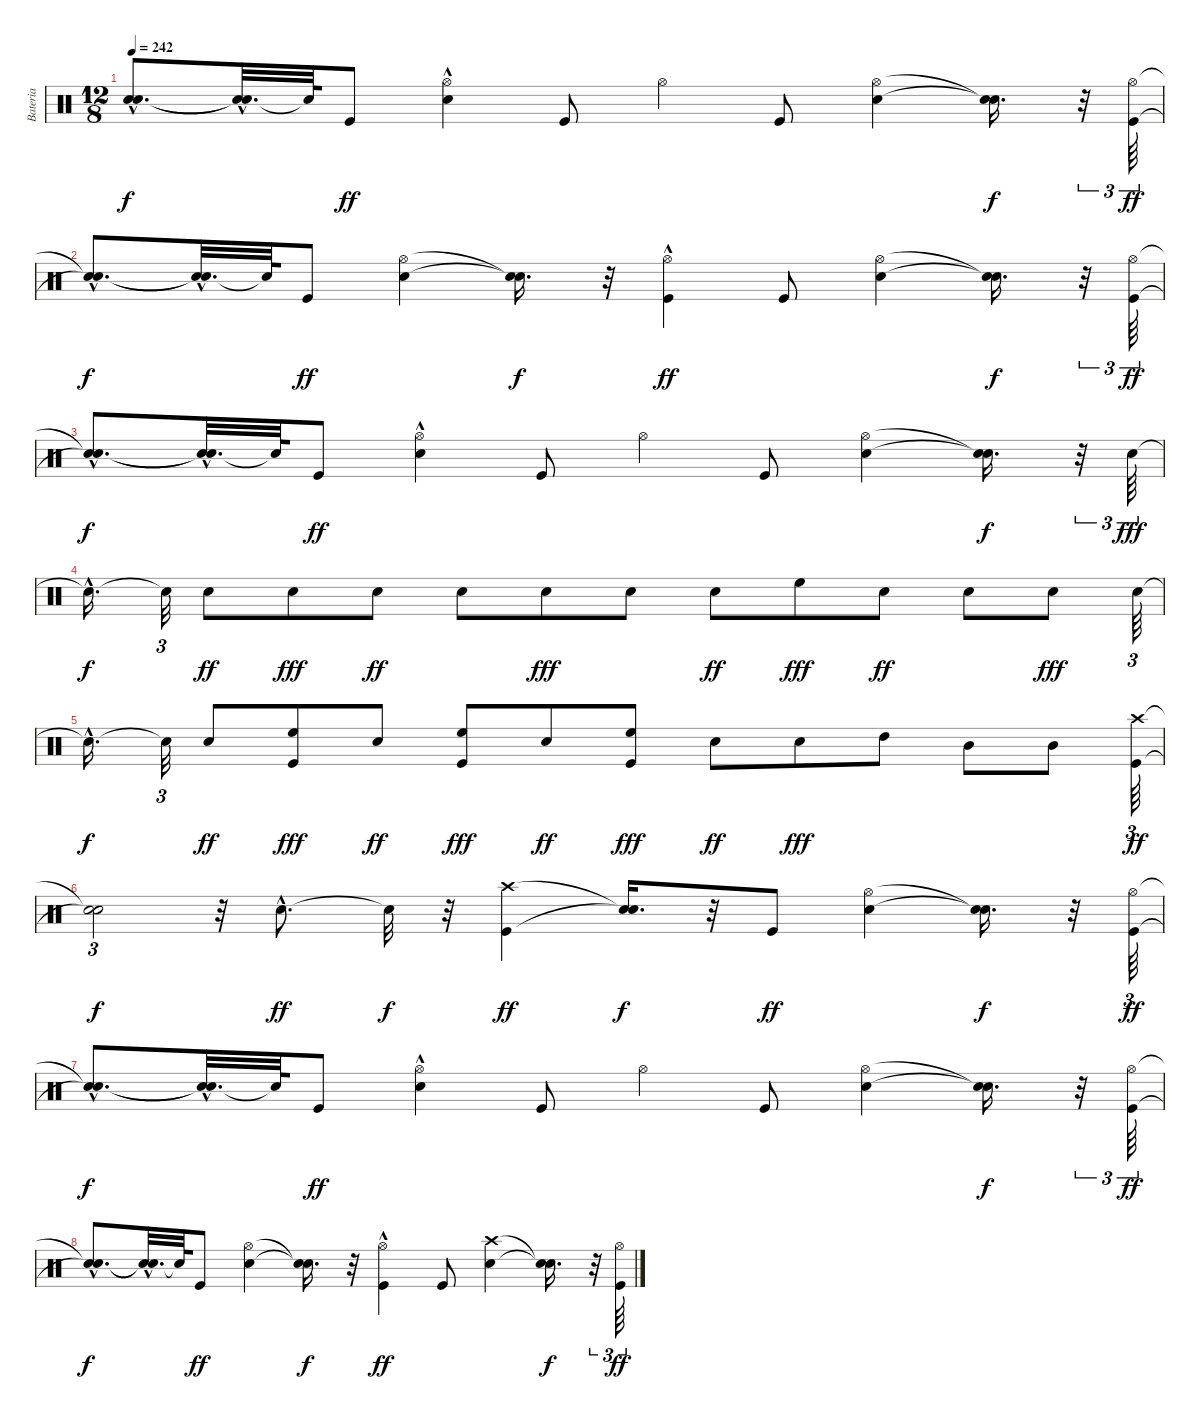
\track ("Bateria" "Bateria") {instrument percussion}
\staff {score}
\articulation defaults
\ts (12 8)
\tempo 242
\clef neutral
\ks c
("Snare (hit)"{hac t} "Snare (hit)"{hac t}).8{d dy f} ("Snare (hit)"{t} "Snare (hit)"{hac t}).32{d} "Snare (hit)"{t}.64 "Kick (hit)".8{dy ff} ("Snare (hit) 2"{hac} "Hi-Hat (open)").4 "Kick (hit)".8 "Hi-Hat (open)".4 "Kick (hit)".8 ("Snare (hit) 2" "Hi-Hat (open)").4 ("Snare (hit)"{t} "Snare (hit)"{t}).16{d dy f} r.32{tu (3 2)} ("Kick (hit)" "Hi-Hat (open)").64{tu (3 2) dy ff} |
("Snare (hit)"{hac t} "Snare (hit)"{hac t}).8{d dy f} ("Snare (hit)"{t} "Snare (hit)"{hac t}).32{d} "Snare (hit)"{t}.64 "Kick (hit)".8{dy ff} ("Snare (hit) 2" "Hi-Hat (open)").4 ("Snare (hit)"{t} "Snare (hit)"{t}).16{d dy f} r.32 ("Kick (hit)"{hac} "Hi-Hat (open)").4{dy ff} "Kick (hit)".8 ("Snare (hit) 2" "Hi-Hat (open)").4 ("Snare (hit)"{t} "Snare (hit)"{t}).16{d dy f} r.32{tu (3 2)} ("Kick (hit)" "Hi-Hat (open)").64{tu (3 2) dy ff} |
("Snare (hit)"{hac t} "Snare (hit)"{hac t}).8{d dy f} ("Snare (hit)"{t} "Snare (hit)"{hac t}).32{d} "Snare (hit)"{t}.64 "Kick (hit)".8{dy ff} ("Snare (hit) 2"{hac} "Hi-Hat (open)").4 "Kick (hit)".8 "Hi-Hat (open)".4 "Kick (hit)".8 ("Snare (hit) 2" "Hi-Hat (open)").4 ("Snare (hit)"{t} "Snare (hit)"{t}).16{d dy f} r.32{tu (3 2)} "Snare (hit) 2".64{tu (3 2) dy fff} |
"Snare (hit)"{hac t}.16{d dy f} "Snare (hit)"{t}.32{tu (3 2)} "Snare (hit) 2".8{dy ff} "Snare (hit) 2".8{dy fff} "Snare (hit) 2".8{dy ff} "Snare (hit) 2".8 "Snare (hit) 2".8{dy fff} "Snare (hit) 2".8 "Snare (hit) 2".8{dy ff} "High Floor Tom (hit)".8{dy fff} "Snare (hit) 2".8{dy ff} "Snare (hit) 2".8 "Snare (hit) 2".8{dy fff} "Snare (hit) 2".64{tu (3 2)} |
"Snare (hit)"{hac t}.16{d dy f} "Snare (hit)"{t}.32{tu (3 2)} "Snare (hit) 2".8{dy ff} ("Kick (hit)" "High Floor Tom (hit)").8{dy fff} "Snare (hit) 2".8{dy ff} ("Kick (hit)" "High Floor Tom (hit)").8{dy fff} "Snare (hit) 2".8{dy ff} ("Kick (hit)" "High Floor Tom (hit)").8{dy fff} "Snare (hit) 2".8{dy ff} "Snare (hit) 2".8{dy fff} "High Tom (hit)".8 "Mid Tom (hit)".8 "Mid Tom (hit)".8 ("Kick (hit)" "Crash high (hit)").64{tu (3 2) dy ff} |
("Snare (hit)"{t} "Snare (hit)"{t}).2{tu (3 2) dy f} r.32 "Snare (hit) 2"{hac}.8{d dy ff} "Snare (hit)"{t}.32{dy f} r.32 ("Kick (hit)" "Crash high (hit)").4{dy ff} ("Snare (hit)"{t} "Snare (hit)"{t}).16{d dy f} r.32 "Kick (hit)".8{dy ff} ("Snare (hit) 2" "Hi-Hat (open)").4 ("Snare (hit)"{t} "Snare (hit)"{t}).16{d dy f} r.32 ("Kick (hit)" "Hi-Hat (open)").64{tu (3 2) dy ff} |
("Snare (hit)"{hac t} "Snare (hit)"{hac t}).8{d dy f} ("Snare (hit)"{t} "Snare (hit)"{hac t}).32{d} "Snare (hit)"{t}.64 "Kick (hit)".8{dy ff} ("Snare (hit) 2"{hac} "Hi-Hat (open)").4 "Kick (hit)".8 "Hi-Hat (open)".4 "Kick (hit)".8 ("Snare (hit) 2" "Hi-Hat (open)").4 ("Snare (hit)"{t} "Snare (hit)"{t}).16{d dy f} r.32{tu (3 2)} ("Kick (hit)" "Hi-Hat (open)").64{tu (3 2) dy ff} |
("Snare (hit)"{hac t} "Snare (hit)"{hac t}).8{d dy f} ("Snare (hit)"{t} "Snare (hit)"{hac t}).32{d} "Snare (hit)"{t}.64 "Kick (hit)".8{dy ff} ("Snare (hit) 2" "Hi-Hat (open)").4 ("Snare (hit)"{t} "Snare (hit)"{t}).16{d dy f} r.32 ("Kick (hit)"{hac} "Hi-Hat (open)").4{dy ff} "Kick (hit)".8 ("Snare (hit) 2" "Crash high (hit)").4 ("Snare (hit)"{t} "Snare (hit)"{t}).16{d dy f} r.32{tu (3 2)} ("Kick (hit)" "Hi-Hat (open)").64{tu (3 2) dy ff}
